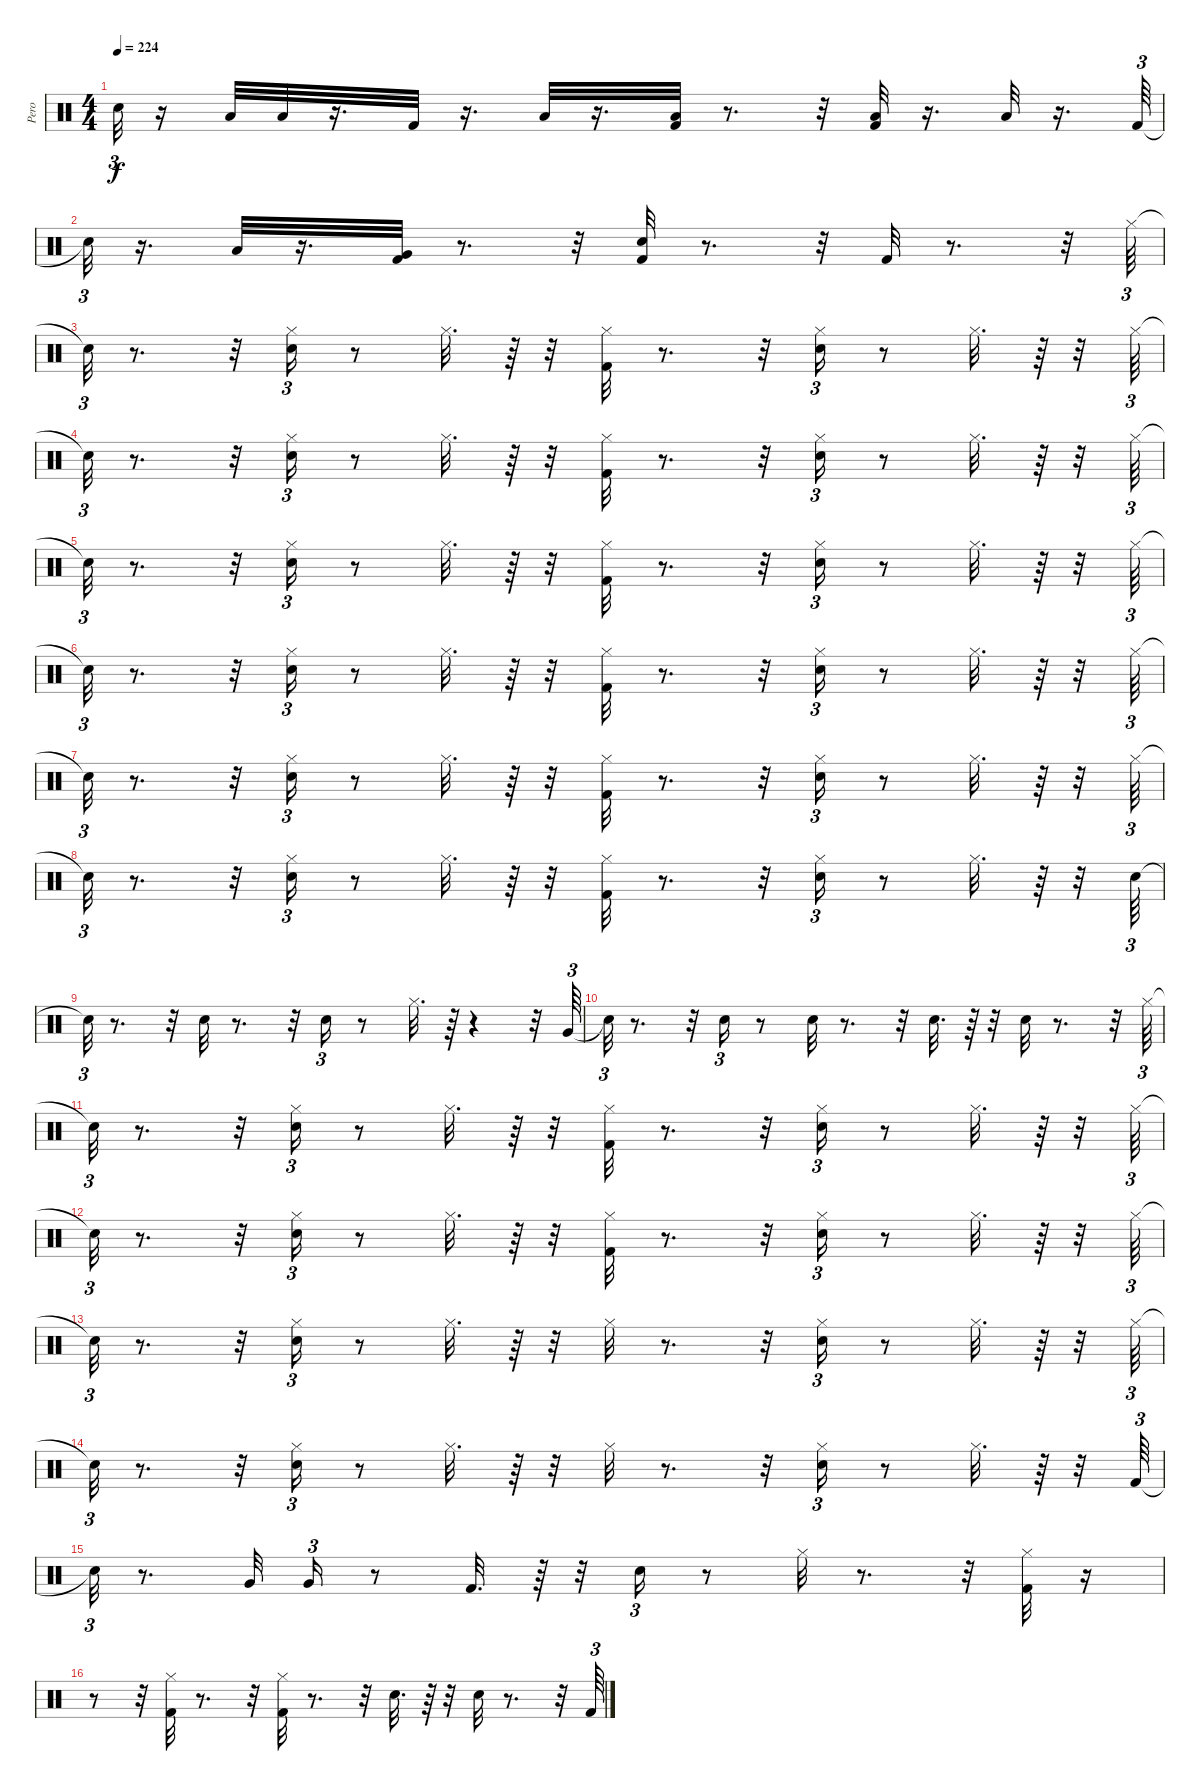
\track ("Pero" "Pero") {instrument percussion}
\staff {score}
\articulation defaults
\ts (4 4)
\tempo 224
\clef neutral
\ks c "Snare (hit)"{t}.32{tu (3 2) dy f}
r.16 "Low Tom (hit)".32 "Low Tom (hit)".32 r.16{d} "Kick (hit) 2".32 r.16{d} "Low Tom (hit)".32 r.16{d} ("Kick (hit) 2" "Low Tom (hit)").32 r.8{d} r.32 ("Kick (hit) 2" "Low Tom (hit)").32 r.16{d} "Low Tom (hit)".32 r.16{d} "Kick (hit) 2".64{tu (3 2)} |
"Snare (hit)"{t}.32{tu (3 2)} r.16{d} "Low Tom (hit)".32 r.16{d} ("Kick (hit) 2" "Very Low Tom (hit)").32 r.8{d} r.32 ("Kick (hit) 2" "Snare (hit) 2").32 r.8{d} r.32 "Kick (hit) 2".32 r.8{d} r.32 "Hi-Hat (closed)".64{tu (3 2)} |
"Snare (hit)"{t}.32{tu (3 2)} r.8{d} r.32 ("Hi-Hat (closed)" "Snare (hit) 2").16{tu (3 2)} r.8 "Hi-Hat (closed)".32{d} r.64 r.32 ("Hi-Hat (closed)" "Kick (hit) 2").32 r.8{d} r.32 ("Hi-Hat (closed)" "Snare (hit) 2").16{tu (3 2)} r.8 "Hi-Hat (closed)".32{d} r.64 r.32 "Hi-Hat (closed)".64{tu (3 2)} |
"Snare (hit)"{t}.32{tu (3 2)} r.8{d} r.32 ("Hi-Hat (closed)" "Snare (hit) 2").16{tu (3 2)} r.8 "Hi-Hat (closed)".32{d} r.64 r.32 ("Hi-Hat (closed)" "Kick (hit) 2").32 r.8{d} r.32 ("Hi-Hat (closed)" "Snare (hit) 2").16{tu (3 2)} r.8 "Hi-Hat (closed)".32{d} r.64 r.32 "Hi-Hat (closed)".64{tu (3 2)} |
"Snare (hit)"{t}.32{tu (3 2)} r.8{d} r.32 ("Hi-Hat (closed)" "Snare (hit) 2").16{tu (3 2)} r.8 "Hi-Hat (closed)".32{d} r.64 r.32 ("Hi-Hat (closed)" "Kick (hit) 2").32 r.8{d} r.32 ("Hi-Hat (closed)" "Snare (hit) 2").16{tu (3 2)} r.8 "Hi-Hat (closed)".32{d} r.64 r.32 "Hi-Hat (closed)".64{tu (3 2)} |
"Snare (hit)"{t}.32{tu (3 2)} r.8{d} r.32 ("Hi-Hat (closed)" "Snare (hit) 2").16{tu (3 2)} r.8 "Hi-Hat (closed)".32{d} r.64 r.32 ("Hi-Hat (closed)" "Kick (hit) 2").32 r.8{d} r.32 ("Hi-Hat (closed)" "Snare (hit) 2").16{tu (3 2)} r.8 "Hi-Hat (closed)".32{d} r.64 r.32 "Hi-Hat (closed)".64{tu (3 2)} |
"Snare (hit)"{t}.32{tu (3 2)} r.8{d} r.32 ("Hi-Hat (closed)" "Snare (hit) 2").16{tu (3 2)} r.8 "Hi-Hat (closed)".32{d} r.64 r.32 ("Hi-Hat (closed)" "Kick (hit) 2").32 r.8{d} r.32 ("Hi-Hat (closed)" "Snare (hit) 2").16{tu (3 2)} r.8 "Hi-Hat (closed)".32{d} r.64 r.32 "Hi-Hat (closed)".64{tu (3 2)} |
"Snare (hit)"{t}.32{tu (3 2)} r.8{d} r.32 ("Hi-Hat (closed)" "Snare (hit) 2").16{tu (3 2)} r.8 "Hi-Hat (closed)".32{d} r.64 r.32 ("Hi-Hat (closed)" "Kick (hit) 2").32 r.8{d} r.32 ("Hi-Hat (closed)" "Snare (hit) 2").16{tu (3 2)} r.8 "Hi-Hat (closed)".32{d} r.64 r.32 "Snare (hit) 2".64{tu (3 2)} |
"Snare (hit)"{t}.32{tu (3 2)} r.8{d} r.32 "Snare (hit) 2".32 r.8{d} r.32 "Snare (hit) 2".16{tu (3 2)} r.8 "Hi-Hat (closed)".32{d} r.64 r.4 r.32 "Very Low Tom (hit)".64{tu (3 2)} |
"Snare (hit)"{t}.32{tu (3 2)} r.8{d} r.32 "Snare (hit) 2".16{tu (3 2)} r.8 "Snare (hit) 2".32 r.8{d} r.32 "Snare (hit) 2".32{d} r.64 r.32 "Snare (hit) 2".32 r.8{d} r.32 "Hi-Hat (closed)".64{tu (3 2)} |
"Snare (hit)"{t}.32{tu (3 2)} r.8{d} r.32 ("Hi-Hat (closed)" "Snare (hit) 2").16{tu (3 2)} r.8 "Hi-Hat (closed)".32{d} r.64 r.32 ("Hi-Hat (closed)" "Kick (hit) 2").32 r.8{d} r.32 ("Hi-Hat (closed)" "Snare (hit) 2").16{tu (3 2)} r.8 "Hi-Hat (closed)".32{d} r.64 r.32 "Hi-Hat (closed)".64{tu (3 2)} |
"Snare (hit)"{t}.32{tu (3 2)} r.8{d} r.32 ("Hi-Hat (closed)" "Snare (hit) 2").16{tu (3 2)} r.8 "Hi-Hat (closed)".32{d} r.64 r.32 ("Hi-Hat (closed)" "Kick (hit) 2").32 r.8{d} r.32 ("Hi-Hat (closed)" "Snare (hit) 2").16{tu (3 2)} r.8 "Hi-Hat (closed)".32{d} r.64 r.32 "Hi-Hat (closed)".64{tu (3 2)} |
"Snare (hit)"{t}.32{tu (3 2)} r.8{d} r.32 ("Hi-Hat (closed)" "Snare (hit) 2").16{tu (3 2)} r.8 "Hi-Hat (closed)".32{d} r.64 r.32 "Hi-Hat (closed)".32 r.8{d} r.32 ("Hi-Hat (closed)" "Snare (hit) 2").16{tu (3 2)} r.8 "Hi-Hat (closed)".32{d} r.64 r.32 "Hi-Hat (closed)".64{tu (3 2)} |
"Snare (hit)"{t}.32{tu (3 2)} r.8{d} r.32 ("Hi-Hat (closed)" "Snare (hit) 2").16{tu (3 2)} r.8 "Hi-Hat (closed)".32{d} r.64 r.32 "Hi-Hat (closed)".32 r.8{d} r.32 ("Hi-Hat (closed)" "Snare (hit) 2").16{tu (3 2)} r.8 "Hi-Hat (closed)".32{d} r.64 r.32 "Kick (hit) 2".64{tu (3 2)} |
"Snare (hit)"{t}.32{tu (3 2)} r.8{d} "Very Low Tom (hit)".32 "Very Low Tom (hit)".16{tu (3 2)} r.8 "Kick (hit) 2".32{d} r.64 r.32 "Snare (hit) 2".16{tu (3 2)} r.8 "Hi-Hat (closed)".32 r.8{d} r.32 ("Hi-Hat (closed)" "Kick (hit) 2").32 r.16 |
r.8 r.32 ("Hi-Hat (closed)" "Kick (hit) 2").32 r.8{d} r.32 ("Hi-Hat (closed)" "Kick (hit) 2").32 r.8{d} r.32 "Snare (hit) 2".32{d} r.64 r.32 "Snare (hit) 2".32 r.8{d} r.32 "Kick (hit) 2".64{tu (3 2)}
